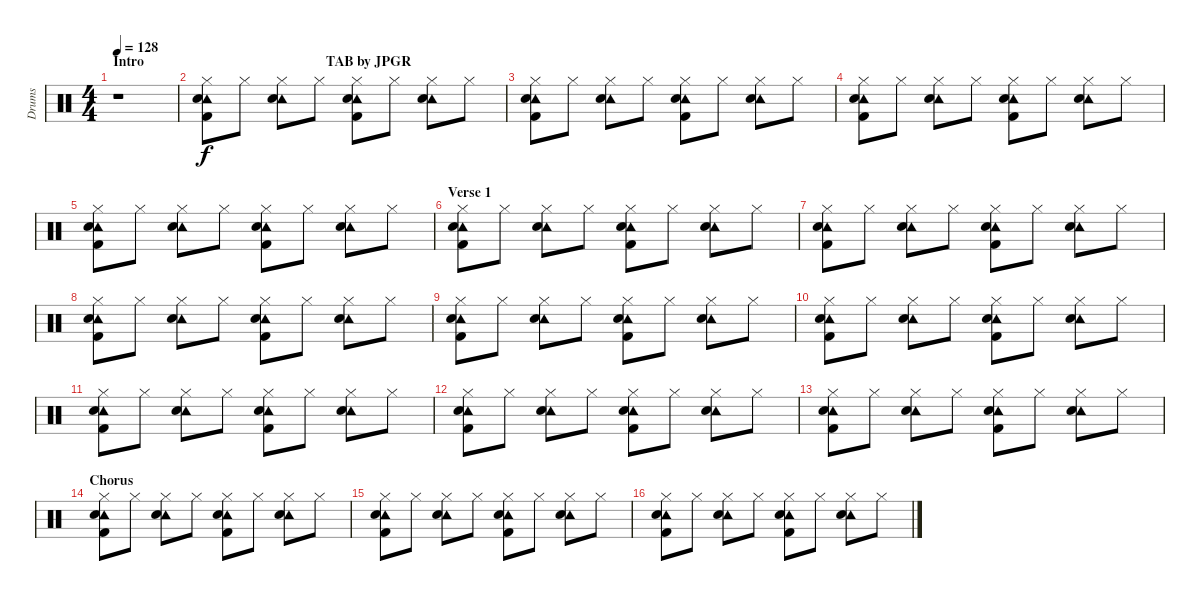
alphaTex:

\track ("Drums" "Drums") {instrument percussion}
\staff {score}
\articulation defaults
\ts (4 4)
\section ("" "Intro                                                    TAB by JPGR")
\tempo 128
\clef neutral
\ks c
r.1{dy f} |
("Tambourine (hit)" "Hi-Hat (closed)" "Snare (hit) 2" "Kick (hit) 2").8 "Hi-Hat (closed)".8 ("Tambourine (hit)" "Hi-Hat (closed)" "Snare (hit) 2").8 "Hi-Hat (closed)".8 ("Tambourine (hit)" "Hi-Hat (closed)" "Snare (hit) 2" "Kick (hit) 2").8 "Hi-Hat (closed)".8 ("Tambourine (hit)" "Hi-Hat (closed)" "Snare (hit) 2").8 "Hi-Hat (closed)".8 |
("Tambourine (hit)" "Hi-Hat (closed)" "Snare (hit) 2" "Kick (hit) 2").8 "Hi-Hat (closed)".8 ("Tambourine (hit)" "Hi-Hat (closed)" "Snare (hit) 2").8 "Hi-Hat (closed)".8 ("Tambourine (hit)" "Hi-Hat (closed)" "Snare (hit) 2" "Kick (hit) 2").8 "Hi-Hat (closed)".8 ("Tambourine (hit)" "Hi-Hat (closed)" "Snare (hit) 2").8 "Hi-Hat (closed)".8 |
("Tambourine (hit)" "Hi-Hat (closed)" "Snare (hit) 2" "Kick (hit) 2").8 "Hi-Hat (closed)".8 ("Tambourine (hit)" "Hi-Hat (closed)" "Snare (hit) 2").8 "Hi-Hat (closed)".8 ("Tambourine (hit)" "Hi-Hat (closed)" "Snare (hit) 2" "Kick (hit) 2").8 "Hi-Hat (closed)".8 ("Tambourine (hit)" "Hi-Hat (closed)" "Snare (hit) 2").8 "Hi-Hat (closed)".8 |
("Tambourine (hit)" "Hi-Hat (closed)" "Snare (hit) 2" "Kick (hit) 2").8 "Hi-Hat (closed)".8 ("Tambourine (hit)" "Hi-Hat (closed)" "Snare (hit) 2").8 "Hi-Hat (closed)".8 ("Tambourine (hit)" "Hi-Hat (closed)" "Snare (hit) 2" "Kick (hit) 2").8 "Hi-Hat (closed)".8 ("Tambourine (hit)" "Hi-Hat (closed)" "Snare (hit) 2").8 "Hi-Hat (closed)".8 |
\section ("" "Verse 1")
("Tambourine (hit)" "Hi-Hat (closed)" "Snare (hit) 2" "Kick (hit) 2").8 "Hi-Hat (closed)".8 ("Tambourine (hit)" "Hi-Hat (closed)" "Snare (hit) 2").8 "Hi-Hat (closed)".8 ("Tambourine (hit)" "Hi-Hat (closed)" "Snare (hit) 2" "Kick (hit) 2").8 "Hi-Hat (closed)".8 ("Tambourine (hit)" "Hi-Hat (closed)" "Snare (hit) 2").8 "Hi-Hat (closed)".8 |
("Tambourine (hit)" "Hi-Hat (closed)" "Snare (hit) 2" "Kick (hit) 2").8 "Hi-Hat (closed)".8 ("Tambourine (hit)" "Hi-Hat (closed)" "Snare (hit) 2").8 "Hi-Hat (closed)".8 ("Tambourine (hit)" "Hi-Hat (closed)" "Snare (hit) 2" "Kick (hit) 2").8 "Hi-Hat (closed)".8 ("Tambourine (hit)" "Hi-Hat (closed)" "Snare (hit) 2").8 "Hi-Hat (closed)".8 |
("Tambourine (hit)" "Hi-Hat (closed)" "Snare (hit) 2" "Kick (hit) 2").8 "Hi-Hat (closed)".8 ("Tambourine (hit)" "Hi-Hat (closed)" "Snare (hit) 2").8 "Hi-Hat (closed)".8 ("Tambourine (hit)" "Hi-Hat (closed)" "Snare (hit) 2" "Kick (hit) 2").8 "Hi-Hat (closed)".8 ("Tambourine (hit)" "Hi-Hat (closed)" "Snare (hit) 2").8 "Hi-Hat (closed)".8 |
("Tambourine (hit)" "Hi-Hat (closed)" "Snare (hit) 2" "Kick (hit) 2").8 "Hi-Hat (closed)".8 ("Tambourine (hit)" "Hi-Hat (closed)" "Snare (hit) 2").8 "Hi-Hat (closed)".8 ("Tambourine (hit)" "Hi-Hat (closed)" "Snare (hit) 2" "Kick (hit) 2").8 "Hi-Hat (closed)".8 ("Tambourine (hit)" "Hi-Hat (closed)" "Snare (hit) 2").8 "Hi-Hat (closed)".8 |
("Tambourine (hit)" "Hi-Hat (closed)" "Snare (hit) 2" "Kick (hit) 2").8 "Hi-Hat (closed)".8 ("Tambourine (hit)" "Hi-Hat (closed)" "Snare (hit) 2").8 "Hi-Hat (closed)".8 ("Tambourine (hit)" "Hi-Hat (closed)" "Snare (hit) 2" "Kick (hit) 2").8 "Hi-Hat (closed)".8 ("Tambourine (hit)" "Hi-Hat (closed)" "Snare (hit) 2").8 "Hi-Hat (closed)".8 |
("Tambourine (hit)" "Hi-Hat (closed)" "Snare (hit) 2" "Kick (hit) 2").8 "Hi-Hat (closed)".8 ("Tambourine (hit)" "Hi-Hat (closed)" "Snare (hit) 2").8 "Hi-Hat (closed)".8 ("Tambourine (hit)" "Hi-Hat (closed)" "Snare (hit) 2" "Kick (hit) 2").8 "Hi-Hat (closed)".8 ("Tambourine (hit)" "Hi-Hat (closed)" "Snare (hit) 2").8 "Hi-Hat (closed)".8 |
("Tambourine (hit)" "Hi-Hat (closed)" "Snare (hit) 2" "Kick (hit) 2").8 "Hi-Hat (closed)".8 ("Tambourine (hit)" "Hi-Hat (closed)" "Snare (hit) 2").8 "Hi-Hat (closed)".8 ("Tambourine (hit)" "Hi-Hat (closed)" "Snare (hit) 2" "Kick (hit) 2").8 "Hi-Hat (closed)".8 ("Tambourine (hit)" "Hi-Hat (closed)" "Snare (hit) 2").8 "Hi-Hat (closed)".8 |
("Tambourine (hit)" "Hi-Hat (closed)" "Snare (hit) 2" "Kick (hit) 2").8 "Hi-Hat (closed)".8 ("Tambourine (hit)" "Hi-Hat (closed)" "Snare (hit) 2").8 "Hi-Hat (closed)".8 ("Tambourine (hit)" "Hi-Hat (closed)" "Snare (hit) 2" "Kick (hit) 2").8 "Hi-Hat (closed)".8 ("Tambourine (hit)" "Hi-Hat (closed)" "Snare (hit) 2").8 "Hi-Hat (closed)".8 |
\section ("" "Chorus")
("Tambourine (hit)" "Hi-Hat (closed)" "Snare (hit) 2" "Kick (hit) 2").8 "Hi-Hat (closed)".8 ("Tambourine (hit)" "Hi-Hat (closed)" "Snare (hit) 2").8 "Hi-Hat (closed)".8 ("Tambourine (hit)" "Hi-Hat (closed)" "Snare (hit) 2" "Kick (hit) 2").8 "Hi-Hat (closed)".8 ("Tambourine (hit)" "Hi-Hat (closed)" "Snare (hit) 2").8 "Hi-Hat (closed)".8 |
("Tambourine (hit)" "Hi-Hat (closed)" "Snare (hit) 2" "Kick (hit) 2").8 "Hi-Hat (closed)".8 ("Tambourine (hit)" "Hi-Hat (closed)" "Snare (hit) 2").8 "Hi-Hat (closed)".8 ("Tambourine (hit)" "Hi-Hat (closed)" "Snare (hit) 2" "Kick (hit) 2").8 "Hi-Hat (closed)".8 ("Tambourine (hit)" "Hi-Hat (closed)" "Snare (hit) 2").8 "Hi-Hat (closed)".8 |
("Tambourine (hit)" "Hi-Hat (closed)" "Snare (hit) 2" "Kick (hit) 2").8 "Hi-Hat (closed)".8 ("Tambourine (hit)" "Hi-Hat (closed)" "Snare (hit) 2").8 "Hi-Hat (closed)".8 ("Tambourine (hit)" "Hi-Hat (closed)" "Snare (hit) 2" "Kick (hit) 2").8 "Hi-Hat (closed)".8 ("Tambourine (hit)" "Hi-Hat (closed)" "Snare (hit) 2").8 "Hi-Hat (closed)".8
